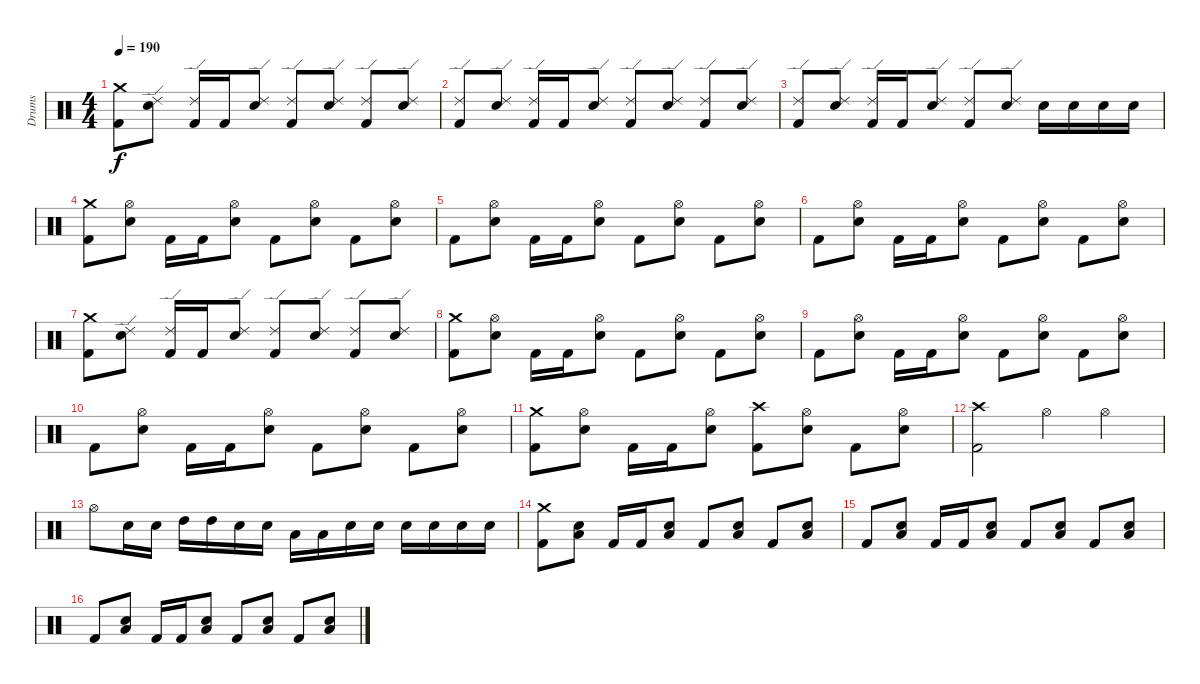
\track ("Drums" "Drums") {instrument percussion}
\staff {score}
\articulation defaults
\ts (4 4)
\tempo 190
\clef neutral
\ks c
("Crash medium (hit)" "Kick (hit) 2").8{dy f} ("Ride (edge) 2" "Electric Snare (hit)").8 ("Ride (edge) 2" "Kick (hit) 2").16 "Kick (hit) 2".16 ("Ride (edge) 2" "Electric Snare (hit)").8 ("Ride (edge) 2" "Kick (hit) 2").8 ("Ride (edge) 2" "Electric Snare (hit)").8 ("Ride (edge) 2" "Kick (hit) 2").8 ("Ride (edge) 2" "Electric Snare (hit)").8 |
("Ride (edge) 2" "Kick (hit) 2").8 ("Ride (edge) 2" "Electric Snare (hit)").8 ("Ride (edge) 2" "Kick (hit) 2").16 "Kick (hit) 2".16 ("Ride (edge) 2" "Electric Snare (hit)").8 ("Ride (edge) 2" "Kick (hit) 2").8 ("Ride (edge) 2" "Electric Snare (hit)").8 ("Ride (edge) 2" "Kick (hit) 2").8 ("Ride (edge) 2" "Electric Snare (hit)").8 |
("Ride (edge) 2" "Kick (hit) 2").8 ("Ride (edge) 2" "Electric Snare (hit)").8 ("Ride (edge) 2" "Kick (hit) 2").16 "Kick (hit) 2".16 ("Ride (edge) 2" "Electric Snare (hit)").8 ("Ride (edge) 2" "Kick (hit) 2").8 ("Ride (edge) 2" "Electric Snare (hit)").8 "Electric Snare (hit)".16 "Electric Snare (hit)".16 "Electric Snare (hit)".16 "Electric Snare (hit)".16 |
("Crash medium (hit)" "Kick (hit) 2").8 ("Hi-Hat (open)" "Electric Snare (hit)").8 "Kick (hit) 2".16 "Kick (hit) 2".16 ("Hi-Hat (open)" "Electric Snare (hit)").8 "Kick (hit) 2".8 ("Hi-Hat (open)" "Electric Snare (hit)").8 "Kick (hit) 2".8 ("Hi-Hat (open)" "Electric Snare (hit)").8 |
"Kick (hit) 2".8 ("Hi-Hat (open)" "Electric Snare (hit)").8 "Kick (hit) 2".16 "Kick (hit) 2".16 ("Hi-Hat (open)" "Electric Snare (hit)").8 "Kick (hit) 2".8 ("Hi-Hat (open)" "Electric Snare (hit)").8 "Kick (hit) 2".8 ("Hi-Hat (open)" "Electric Snare (hit)").8 |
"Kick (hit) 2".8 ("Hi-Hat (open)" "Electric Snare (hit)").8 "Kick (hit) 2".16 "Kick (hit) 2".16 ("Hi-Hat (open)" "Electric Snare (hit)").8 "Kick (hit) 2".8 ("Hi-Hat (open)" "Electric Snare (hit)").8 "Kick (hit) 2".8 ("Hi-Hat (open)" "Electric Snare (hit)").8 |
("Crash medium (hit)" "Kick (hit) 2").8 ("Ride (edge) 2" "Electric Snare (hit)").8 ("Ride (edge) 2" "Kick (hit) 2").16 "Kick (hit) 2".16 ("Ride (edge) 2" "Electric Snare (hit)").8 ("Ride (edge) 2" "Kick (hit) 2").8 ("Ride (edge) 2" "Electric Snare (hit)").8 ("Ride (edge) 2" "Kick (hit) 2").8 ("Ride (edge) 2" "Electric Snare (hit)").8 |
("Crash medium (hit)" "Kick (hit) 2").8 ("Hi-Hat (open)" "Electric Snare (hit)").8 "Kick (hit) 2".16 "Kick (hit) 2".16 ("Hi-Hat (open)" "Electric Snare (hit)").8 "Kick (hit) 2".8 ("Hi-Hat (open)" "Electric Snare (hit)").8 "Kick (hit) 2".8 ("Hi-Hat (open)" "Electric Snare (hit)").8 |
"Kick (hit) 2".8 ("Hi-Hat (open)" "Electric Snare (hit)").8 "Kick (hit) 2".16 "Kick (hit) 2".16 ("Hi-Hat (open)" "Electric Snare (hit)").8 "Kick (hit) 2".8 ("Hi-Hat (open)" "Electric Snare (hit)").8 "Kick (hit) 2".8 ("Hi-Hat (open)" "Electric Snare (hit)").8 |
"Kick (hit) 2".8 ("Hi-Hat (open)" "Electric Snare (hit)").8 "Kick (hit) 2".16 "Kick (hit) 2".16 ("Hi-Hat (open)" "Electric Snare (hit)").8 "Kick (hit) 2".8 ("Hi-Hat (open)" "Electric Snare (hit)").8 "Kick (hit) 2".8 ("Hi-Hat (open)" "Electric Snare (hit)").8 |
("Crash medium (hit)" "Kick (hit) 2").8 ("Hi-Hat (open)" "Electric Snare (hit)").8 "Kick (hit) 2".16 "Kick (hit) 2".16 ("Hi-Hat (open)" "Electric Snare (hit)").8 ("Crash high (hit)" "Kick (hit) 2").8 ("Hi-Hat (open)" "Electric Snare (hit)").8 "Kick (hit) 2".8 ("Hi-Hat (open)" "Electric Snare (hit)").8 |
("Crash high (hit)" "Kick (hit) 2").2 "Hi-Hat (open)".4 "Hi-Hat (open)".4 |
"Hi-Hat (open)".8 "Electric Snare (hit)".16 "Electric Snare (hit)".16 "High Tom (hit)".16 "High Tom (hit)".16 "Electric Snare (hit)".16 "Electric Snare (hit)".16 "Low Tom (hit)".16 "Low Tom (hit)".16 "Electric Snare (hit)".16 "Electric Snare (hit)".16 "Electric Snare (hit)".16 "Electric Snare (hit)".16 "Electric Snare (hit)".16 "Electric Snare (hit)".16 |
("Crash medium (hit)" "Kick (hit) 2").8 ("Low Tom (hit)" "Electric Snare (hit)").8 "Kick (hit) 2".16 "Kick (hit) 2".16 ("Low Tom (hit)" "Electric Snare (hit)").8 "Kick (hit) 2".8 ("Low Tom (hit)" "Electric Snare (hit)").8 "Kick (hit) 2".8 ("Low Tom (hit)" "Electric Snare (hit)").8 |
"Kick (hit) 2".8 ("Low Tom (hit)" "Electric Snare (hit)").8 "Kick (hit) 2".16 "Kick (hit) 2".16 ("Low Tom (hit)" "Electric Snare (hit)").8 "Kick (hit) 2".8 ("Low Tom (hit)" "Electric Snare (hit)").8 "Kick (hit) 2".8 ("Low Tom (hit)" "Electric Snare (hit)").8 |
"Kick (hit) 2".8 ("Low Tom (hit)" "Electric Snare (hit)").8 "Kick (hit) 2".16 "Kick (hit) 2".16 ("Low Tom (hit)" "Electric Snare (hit)").8 "Kick (hit) 2".8 ("Low Tom (hit)" "Electric Snare (hit)").8 "Kick (hit) 2".8 ("Low Tom (hit)" "Electric Snare (hit)").8
